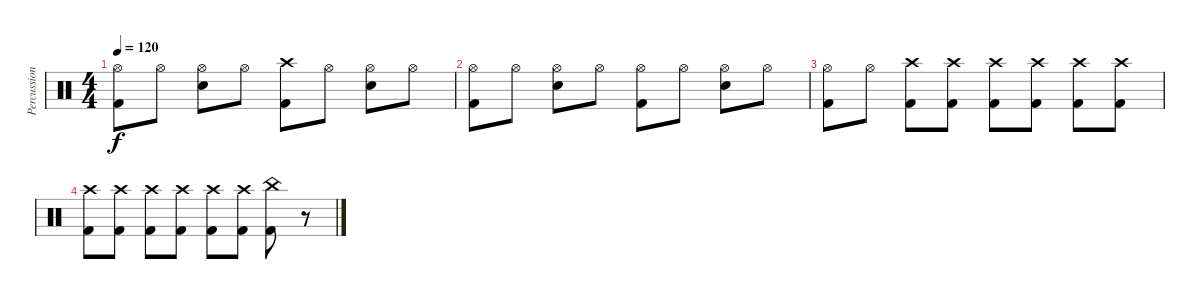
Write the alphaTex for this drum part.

\track ("Percussion" "Percussion") {instrument percussion}
\staff {score}
\articulation defaults
\ts (4 4)
\tempo 120
\clef neutral
\ks c
("Hi-Hat (open)" "Kick (hit) 2").8{dy f} "Hi-Hat (open)".8 ("Hi-Hat (open)" "Snare (hit) 2").8 "Hi-Hat (open)".8 ("Crash high (hit)" "Kick (hit) 2").8 "Hi-Hat (open)".8 ("Hi-Hat (open)" "Snare (hit) 2").8 "Hi-Hat (open)".8 |
("Hi-Hat (open)" "Kick (hit) 2").8 "Hi-Hat (open)".8 ("Hi-Hat (open)" "Snare (hit) 2").8 "Hi-Hat (open)".8 ("Hi-Hat (open)" "Kick (hit) 2").8 "Hi-Hat (open)".8 ("Hi-Hat (open)" "Snare (hit) 2").8 "Hi-Hat (open)".8 |
("Hi-Hat (open)" "Kick (hit) 2").8 "Hi-Hat (open)".8 ("Crash high (hit)" "Kick (hit) 2").8 ("Crash high (hit)" "Kick (hit) 2").8 ("Crash high (hit)" "Kick (hit) 2").8 ("Crash high (hit)" "Kick (hit) 2").8 ("Crash high (hit)" "Kick (hit) 2").8 ("Crash high (hit)" "Kick (hit) 2").8 |
("Crash high (hit)" "Kick (hit) 2").8 ("Crash high (hit)" "Kick (hit) 2").8 ("Crash high (hit)" "Kick (hit) 2").8 ("Crash high (hit)" "Kick (hit) 2").8 ("Crash high (hit)" "Kick (hit) 2").8 ("Crash high (hit)" "Kick (hit) 2").8 ("China (hit)" "Kick (hit) 2").8 r.8
